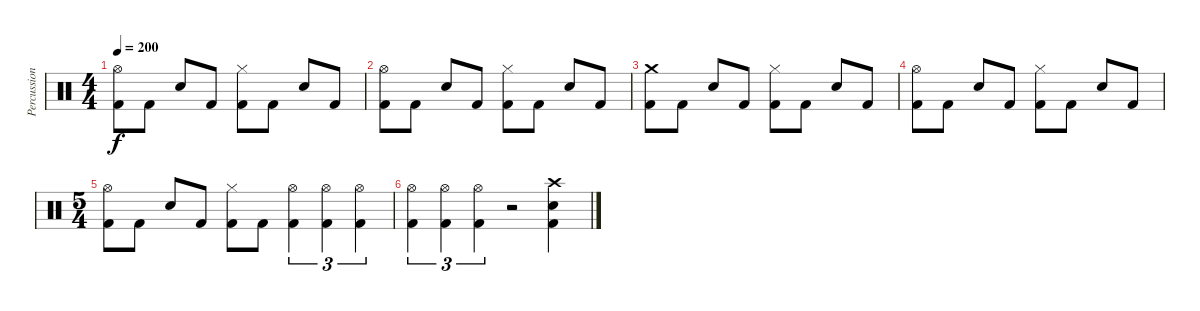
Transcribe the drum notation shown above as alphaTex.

\track ("Percussion" "Percussion") {instrument percussion}
\staff {score}
\articulation defaults
\ts (4 4)
\tempo 200
\clef neutral
\ks c
("Hi-Hat (open)" "Kick (hit) 2").8{dy f} "Kick (hit) 2".8 "Snare (hit) 2".8 "Kick (hit) 2".8 ("Hi-Hat (closed)" "Kick (hit) 2").8 "Kick (hit) 2".8 "Snare (hit) 2".8 "Kick (hit) 2".8 |
("Hi-Hat (open)" "Kick (hit) 2").8 "Kick (hit) 2".8 "Snare (hit) 2".8 "Kick (hit) 2".8 ("Hi-Hat (closed)" "Kick (hit) 2").8 "Kick (hit) 2".8 "Snare (hit) 2".8 "Kick (hit) 2".8 |
("Crash medium (hit)" "Kick (hit) 2").8 "Kick (hit) 2".8 "Snare (hit) 2".8 "Kick (hit) 2".8 ("Hi-Hat (closed)" "Kick (hit) 2").8 "Kick (hit) 2".8 "Snare (hit) 2".8 "Kick (hit) 2".8 |
("Hi-Hat (open)" "Kick (hit) 2").8 "Kick (hit) 2".8 "Snare (hit) 2".8 "Kick (hit) 2".8 ("Hi-Hat (closed)" "Kick (hit) 2").8 "Kick (hit) 2".8 "Snare (hit) 2".8 "Kick (hit) 2".8 |
\ts (5 4)
("Hi-Hat (open)" "Kick (hit) 2").8 "Kick (hit) 2".8 "Snare (hit) 2".8 "Kick (hit) 2".8 ("Hi-Hat (closed)" "Kick (hit) 2").8 "Kick (hit) 2".8 ("Hi-Hat (open)" "Kick (hit) 2").4{tu (3 2)} ("Hi-Hat (open)" "Kick (hit) 2").4{tu (3 2)} ("Hi-Hat (open)" "Kick (hit) 2").4{tu (3 2)} |
("Hi-Hat (open)" "Kick (hit) 2").4{tu (3 2)} ("Hi-Hat (open)" "Kick (hit) 2").4{tu (3 2)} ("Hi-Hat (open)" "Kick (hit) 2").4{tu (3 2)} r.2 ("Crash high (hit)" "Snare (hit) 2" "Kick (hit) 2").4
